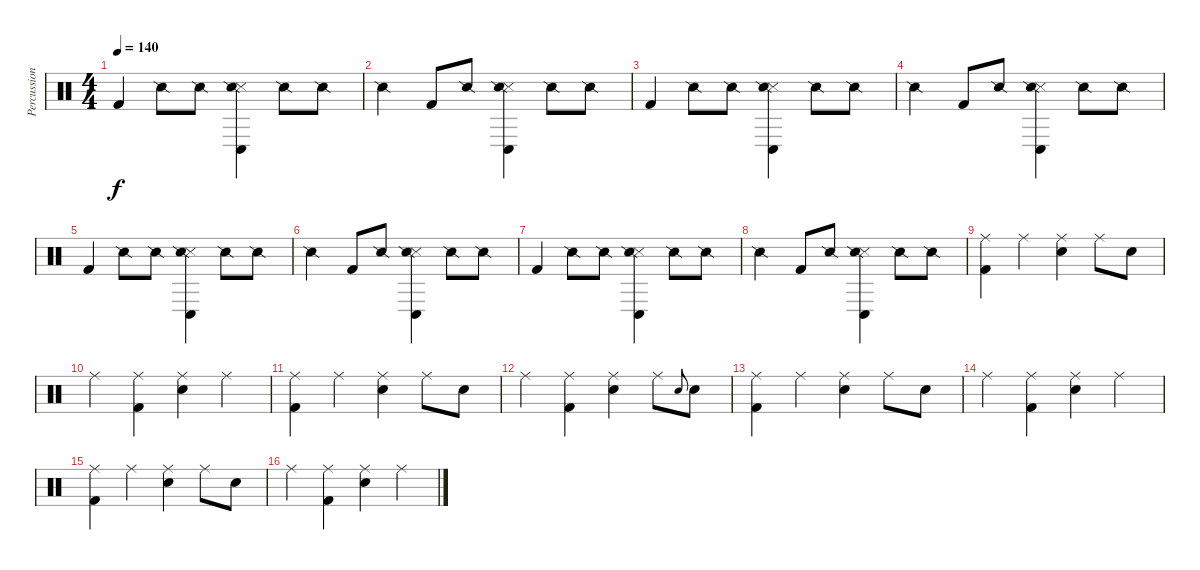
\track ("Percussion" "Percussion") {instrument percussion}
\staff {score}
\articulation defaults
\ts (4 4)
\tempo 140
\clef neutral
\ks c "Kick (hit) 2".4{dy f} "Snare (side stick) 2".8 "Snare (side stick) 2".8
("Conga low (hit)" "Snare (side stick) 3" "Snare (side stick) 2").4 "Snare (side stick) 2".8 "Snare (side stick) 2".8 |
"Snare (side stick) 2".4 "Kick (hit) 2".8 "Snare (side stick) 2".8 ("Conga low (hit)" "Snare (side stick) 3" "Snare (side stick) 2").4 "Snare (side stick) 2".8 "Snare (side stick) 2".8 |
"Kick (hit) 2".4 "Snare (side stick) 2".8 "Snare (side stick) 2".8 ("Conga low (hit)" "Snare (side stick) 3" "Snare (side stick) 2").4 "Snare (side stick) 2".8 "Snare (side stick) 2".8 |
"Snare (side stick) 2".4 "Kick (hit) 2".8 "Snare (side stick) 2".8 ("Conga low (hit)" "Snare (side stick) 3" "Snare (side stick) 2").4 "Snare (side stick) 2".8 "Snare (side stick) 2".8 |
"Kick (hit) 2".4 "Snare (side stick) 2".8 "Snare (side stick) 2".8 ("Conga low (hit)" "Snare (side stick) 3" "Snare (side stick) 2").4 "Snare (side stick) 2".8 "Snare (side stick) 2".8 |
"Snare (side stick) 2".4 "Kick (hit) 2".8 "Snare (side stick) 2".8 ("Conga low (hit)" "Snare (side stick) 3" "Snare (side stick) 2").4 "Snare (side stick) 2".8 "Snare (side stick) 2".8 |
"Kick (hit) 2".4 "Snare (side stick) 2".8 "Snare (side stick) 2".8 ("Conga low (hit)" "Snare (side stick) 3" "Snare (side stick) 2").4 "Snare (side stick) 2".8 "Snare (side stick) 2".8 |
"Snare (side stick) 2".4 "Kick (hit) 2".8 "Snare (side stick) 2".8 ("Conga low (hit)" "Snare (side stick) 3" "Snare (side stick) 2").4 "Snare (side stick) 2".8 "Snare (side stick) 2".8 |
("Ride (middle)" "Kick (hit) 2").4 "Ride (middle)".4 ("Ride (middle)" "Electric Snare (hit)").4 "Ride (middle)".8 "Electric Snare (hit)".8 |
"Ride (middle)".4 ("Ride (middle)" "Kick (hit) 2").4 ("Ride (middle)" "Electric Snare (hit)").4 "Ride (middle)".4 |
("Ride (middle)" "Kick (hit) 2").4 "Ride (middle)".4 ("Ride (middle)" "Electric Snare (hit)").4 "Ride (middle)".8 "Electric Snare (hit)".8 |
"Ride (middle)".4 ("Ride (middle)" "Kick (hit) 2").4 ("Ride (middle)" "Electric Snare (hit)").4 "Ride (middle)".8 "Electric Snare (hit)".8{gr onbeat} "Electric Snare (hit)".8 |
("Ride (middle)" "Kick (hit) 2").4 "Ride (middle)".4 ("Ride (middle)" "Electric Snare (hit)").4 "Ride (middle)".8 "Electric Snare (hit)".8 |
"Ride (middle)".4 ("Ride (middle)" "Kick (hit) 2").4 ("Ride (middle)" "Electric Snare (hit)").4 "Ride (middle)".4 |
("Ride (middle)" "Kick (hit) 2").4 "Ride (middle)".4 ("Ride (middle)" "Electric Snare (hit)").4 "Ride (middle)".8 "Electric Snare (hit)".8 |
"Ride (middle)".4 ("Ride (middle)" "Kick (hit) 2").4 ("Ride (middle)" "Electric Snare (hit)").4 "Ride (middle)".4
